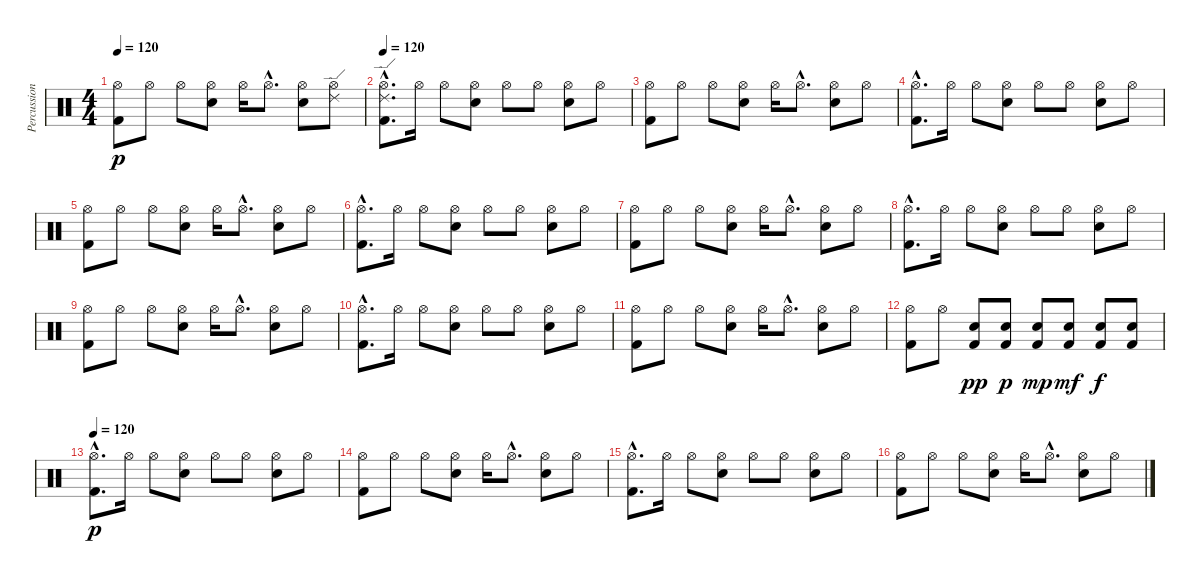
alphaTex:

\track ("Percussion" "Percussion") {instrument percussion}
\staff {score}
\articulation defaults
\ts (4 4)
\tempo 120
\clef neutral
\ks c
("Hi-Hat (open)" "Kick (hit) 2").8{dy p} "Hi-Hat (open)".8 "Hi-Hat (open)".8 ("Hi-Hat (open)" "Electric Snare (hit)").8 "Hi-Hat (open)".16 "Hi-Hat (open)"{hac}.8{d} ("Hi-Hat (open)" "Electric Snare (hit)").8 ("Hi-Hat (open)" "Ride (edge) 2").8 |
\tempo 120
("Hi-Hat (open)"{hac} "Kick (hit) 2"{hac} "Ride (edge) 2"{hac}).8{d} "Hi-Hat (open)".16 "Hi-Hat (open)".8 ("Hi-Hat (open)" "Electric Snare (hit)").8 "Hi-Hat (open)".8 "Hi-Hat (open)".8 ("Hi-Hat (open)" "Electric Snare (hit)").8 "Hi-Hat (open)".8 |
("Hi-Hat (open)" "Kick (hit) 2").8 "Hi-Hat (open)".8 "Hi-Hat (open)".8 ("Hi-Hat (open)" "Electric Snare (hit)").8 "Hi-Hat (open)".16 "Hi-Hat (open)"{hac}.8{d} ("Hi-Hat (open)" "Electric Snare (hit)").8 "Hi-Hat (open)".8 |
("Hi-Hat (open)"{hac} "Kick (hit) 2"{hac}).8{d} "Hi-Hat (open)".16 "Hi-Hat (open)".8 ("Hi-Hat (open)" "Electric Snare (hit)").8 "Hi-Hat (open)".8 "Hi-Hat (open)".8 ("Hi-Hat (open)" "Electric Snare (hit)").8 "Hi-Hat (open)".8 |
("Hi-Hat (open)" "Kick (hit) 2").8 "Hi-Hat (open)".8 "Hi-Hat (open)".8 ("Hi-Hat (open)" "Electric Snare (hit)").8 "Hi-Hat (open)".16 "Hi-Hat (open)"{hac}.8{d} ("Hi-Hat (open)" "Electric Snare (hit)").8 "Hi-Hat (open)".8 |
("Hi-Hat (open)"{hac} "Kick (hit) 2"{hac}).8{d} "Hi-Hat (open)".16 "Hi-Hat (open)".8 ("Hi-Hat (open)" "Electric Snare (hit)").8 "Hi-Hat (open)".8 "Hi-Hat (open)".8 ("Hi-Hat (open)" "Electric Snare (hit)").8 "Hi-Hat (open)".8 |
("Hi-Hat (open)" "Kick (hit) 2").8 "Hi-Hat (open)".8 "Hi-Hat (open)".8 ("Hi-Hat (open)" "Electric Snare (hit)").8 "Hi-Hat (open)".16 "Hi-Hat (open)"{hac}.8{d} ("Hi-Hat (open)" "Electric Snare (hit)").8 "Hi-Hat (open)".8 |
("Hi-Hat (open)"{hac} "Kick (hit) 2"{hac}).8{d} "Hi-Hat (open)".16 "Hi-Hat (open)".8 ("Hi-Hat (open)" "Electric Snare (hit)").8 "Hi-Hat (open)".8 "Hi-Hat (open)".8 ("Hi-Hat (open)" "Electric Snare (hit)").8 "Hi-Hat (open)".8 |
("Hi-Hat (open)" "Kick (hit) 2").8 "Hi-Hat (open)".8 "Hi-Hat (open)".8 ("Hi-Hat (open)" "Electric Snare (hit)").8 "Hi-Hat (open)".16 "Hi-Hat (open)"{hac}.8{d} ("Hi-Hat (open)" "Electric Snare (hit)").8 "Hi-Hat (open)".8 |
("Hi-Hat (open)"{hac} "Kick (hit) 2"{hac}).8{d} "Hi-Hat (open)".16 "Hi-Hat (open)".8 ("Hi-Hat (open)" "Electric Snare (hit)").8 "Hi-Hat (open)".8 "Hi-Hat (open)".8 ("Hi-Hat (open)" "Electric Snare (hit)").8 "Hi-Hat (open)".8 |
("Hi-Hat (open)" "Kick (hit) 2").8 "Hi-Hat (open)".8 "Hi-Hat (open)".8 ("Hi-Hat (open)" "Electric Snare (hit)").8 "Hi-Hat (open)".16 "Hi-Hat (open)"{hac}.8{d} ("Hi-Hat (open)" "Electric Snare (hit)").8 "Hi-Hat (open)".8 |
("Hi-Hat (open)" "Kick (hit) 2").8 "Hi-Hat (open)".8 ("Kick (hit) 2" "Electric Snare (hit)").8{dy pp} ("Kick (hit) 2" "Electric Snare (hit)").8{dy p} ("Kick (hit) 2" "Electric Snare (hit)").8{dy mp} ("Kick (hit) 2" "Electric Snare (hit)").8{dy mf} ("Kick (hit) 2" "Electric Snare (hit)").8{dy f} ("Kick (hit) 2" "Electric Snare (hit)").8 |
\tempo 120
("Hi-Hat (open)"{hac} "Kick (hit) 2"{hac}).8{d dy p} "Hi-Hat (open)".16 "Hi-Hat (open)".8 ("Hi-Hat (open)" "Electric Snare (hit)").8 "Hi-Hat (open)".8 "Hi-Hat (open)".8 ("Hi-Hat (open)" "Electric Snare (hit)").8 "Hi-Hat (open)".8 |
("Hi-Hat (open)" "Kick (hit) 2").8 "Hi-Hat (open)".8 "Hi-Hat (open)".8 ("Hi-Hat (open)" "Electric Snare (hit)").8 "Hi-Hat (open)".16 "Hi-Hat (open)"{hac}.8{d} ("Hi-Hat (open)" "Electric Snare (hit)").8 "Hi-Hat (open)".8 |
("Hi-Hat (open)"{hac} "Kick (hit) 2"{hac}).8{d} "Hi-Hat (open)".16 "Hi-Hat (open)".8 ("Hi-Hat (open)" "Electric Snare (hit)").8 "Hi-Hat (open)".8 "Hi-Hat (open)".8 ("Hi-Hat (open)" "Electric Snare (hit)").8 "Hi-Hat (open)".8 |
("Hi-Hat (open)" "Kick (hit) 2").8 "Hi-Hat (open)".8 "Hi-Hat (open)".8 ("Hi-Hat (open)" "Electric Snare (hit)").8 "Hi-Hat (open)".16 "Hi-Hat (open)"{hac}.8{d} ("Hi-Hat (open)" "Electric Snare (hit)").8 "Hi-Hat (open)".8
